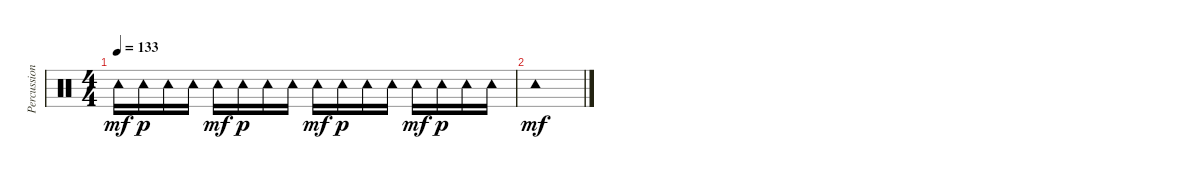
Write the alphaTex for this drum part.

\track ("Percussion" "Percussion") {instrument percussion}
\staff {score}
\articulation defaults
\ts (4 4)
\tempo 133
\clef neutral
\ks c "Tambourine (hit)".16{dy mf} "Tambourine (hit)".16{dy p} "Tambourine (hit)".16 "Tambourine (hit)".16 "Tambourine (hit)".16{dy mf} "Tambourine (hit)".16{dy p} "Tambourine (hit)".16 "Tambourine (hit)".16 "Tambourine (hit)".16{dy mf} "Tambourine (hit)".16{dy p} "Tambourine (hit)".16 "Tambourine (hit)".16 "Tambourine (hit)".16{dy mf} "Tambourine (hit)".16{dy p} "Tambourine (hit)".16 "Tambourine (hit)".16
|
"Tambourine (hit)".1{dy mf}
